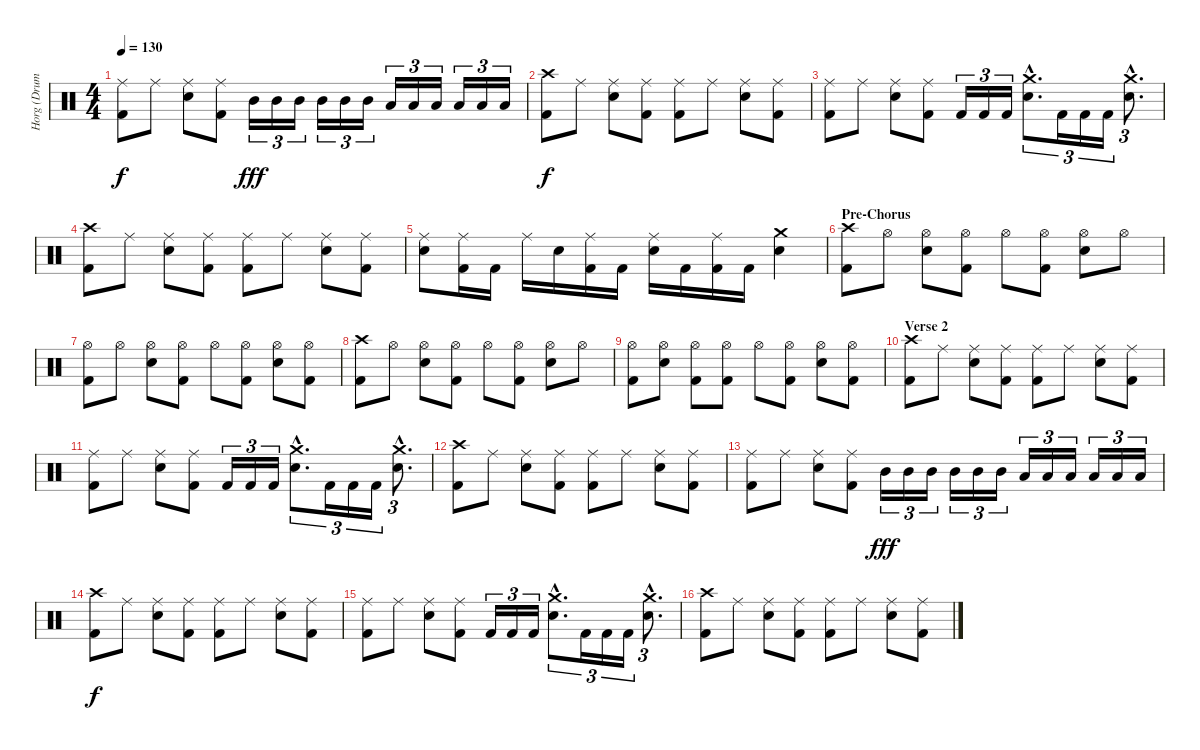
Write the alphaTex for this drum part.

\track ("Horg (Drums)" "Horg (Drum") {instrument percussion}
\staff {score}
\articulation defaults
\ts (4 4)
\tempo 130
\clef neutral
\ks c
("Ride (middle)" "Kick (hit) 2").8{dy f} "Ride (middle)".8 ("Ride (middle)" "Electric Snare (hit)").8 ("Ride (middle)" "Kick (hit) 2").8 "Mid Tom (hit)".16{tu (3 2) dy fff} "Mid Tom (hit)".16{tu (3 2)} "Mid Tom (hit)".16{tu (3 2)} "Mid Tom (hit)".16{tu (3 2)} "Mid Tom (hit)".16{tu (3 2)} "Mid Tom (hit)".16{tu (3 2)} "Low Tom (hit)".16{tu (3 2)} "Low Tom (hit)".16{tu (3 2)} "Low Tom (hit)".16{tu (3 2)} "Low Tom (hit)".16{tu (3 2)} "Low Tom (hit)".16{tu (3 2)} "Low Tom (hit)".16{tu (3 2)} |
("Crash high (hit)" "Kick (hit) 2").8{dy f} "Ride (middle)".8 ("Ride (middle)" "Electric Snare (hit)").8 ("Ride (middle)" "Kick (hit) 2").8 ("Ride (middle)" "Kick (hit) 2").8 "Ride (middle)".8 ("Ride (middle)" "Electric Snare (hit)").8 ("Ride (middle)" "Kick (hit) 2").8 |
("Ride (middle)" "Kick (hit) 2").8 "Ride (middle)".8 ("Ride (middle)" "Electric Snare (hit)").8 ("Ride (middle)" "Kick (hit) 2").8 "Kick (hit) 2".16{tu (3 2)} "Kick (hit) 2".16{tu (3 2)} "Kick (hit) 2".16{tu (3 2)} ("Crash medium (hit)"{hac} "Electric Snare (hit)"{hac}).8{d tu (3 2)} "Kick (hit) 2".16{tu (3 2)} "Kick (hit) 2".16{tu (3 2)} "Kick (hit) 2".16{tu (3 2)} ("Crash medium (hit)"{hac} "Electric Snare (hit)"{hac}).8{d tu (3 2)} |
("Crash high (hit)" "Kick (hit) 2").8 "Ride (middle)".8 ("Ride (middle)" "Electric Snare (hit)").8 ("Ride (middle)" "Kick (hit) 2").8 ("Ride (middle)" "Kick (hit) 2").8 "Ride (middle)".8 ("Ride (middle)" "Electric Snare (hit)").8 ("Ride (middle)" "Kick (hit) 2").8 |
("Ride (middle)" "Electric Snare (hit)").8 ("Ride (middle)" "Kick (hit) 2").16 "Kick (hit) 2".16 "Ride (middle)".16 "Electric Snare (hit)".16 ("Ride (middle)" "Kick (hit) 2").16 "Kick (hit) 2".16 ("Ride (middle)" "Electric Snare (hit)").16 "Kick (hit) 2".16 ("Ride (middle)" "Kick (hit) 2").16 "Kick (hit) 2".16 ("Crash medium (hit)" "Electric Snare (hit)").4 |
\section ("" "Pre-Chorus")
("Crash high (hit)" "Kick (hit) 2").8 "Hi-Hat (open)".8 ("Hi-Hat (open)" "Electric Snare (hit)").8 ("Hi-Hat (open)" "Kick (hit) 2").8 "Hi-Hat (open)".8 ("Hi-Hat (open)" "Kick (hit) 2").8 ("Hi-Hat (open)" "Electric Snare (hit)").8 "Hi-Hat (open)".8 |
("Hi-Hat (open)" "Kick (hit) 2").8 "Hi-Hat (open)".8 ("Hi-Hat (open)" "Electric Snare (hit)").8 ("Hi-Hat (open)" "Kick (hit) 2").8 "Hi-Hat (open)".8 ("Hi-Hat (open)" "Kick (hit) 2").8 ("Hi-Hat (open)" "Electric Snare (hit)").8 ("Hi-Hat (open)" "Kick (hit) 2").8 |
("Crash high (hit)" "Kick (hit) 2").8 "Hi-Hat (open)".8 ("Hi-Hat (open)" "Electric Snare (hit)").8 ("Hi-Hat (open)" "Kick (hit) 2").8 "Hi-Hat (open)".8 ("Hi-Hat (open)" "Kick (hit) 2").8 ("Hi-Hat (open)" "Electric Snare (hit)").8 "Hi-Hat (open)".8 |
("Hi-Hat (open)" "Kick (hit) 2").8 ("Hi-Hat (open)" "Electric Snare (hit)").8 ("Hi-Hat (open)" "Kick (hit) 2").8 ("Hi-Hat (open)" "Kick (hit) 2").8 "Hi-Hat (open)".8 ("Hi-Hat (open)" "Kick (hit) 2").8 ("Hi-Hat (open)" "Electric Snare (hit)").8 ("Hi-Hat (open)" "Kick (hit) 2").8 |
\section ("" "Verse 2")
("Crash high (hit)" "Kick (hit) 2").8 "Ride (middle)".8 ("Ride (middle)" "Electric Snare (hit)").8 ("Ride (middle)" "Kick (hit) 2").8 ("Ride (middle)" "Kick (hit) 2").8 "Ride (middle)".8 ("Ride (middle)" "Electric Snare (hit)").8 ("Ride (middle)" "Kick (hit) 2").8 |
("Ride (middle)" "Kick (hit) 2").8 "Ride (middle)".8 ("Ride (middle)" "Electric Snare (hit)").8 ("Ride (middle)" "Kick (hit) 2").8 "Kick (hit) 2".16{tu (3 2)} "Kick (hit) 2".16{tu (3 2)} "Kick (hit) 2".16{tu (3 2)} ("Crash medium (hit)"{hac} "Electric Snare (hit)"{hac}).8{d tu (3 2)} "Kick (hit) 2".16{tu (3 2)} "Kick (hit) 2".16{tu (3 2)} "Kick (hit) 2".16{tu (3 2)} ("Crash medium (hit)"{hac} "Electric Snare (hit)"{hac}).8{d tu (3 2)} |
("Crash high (hit)" "Kick (hit) 2").8 "Ride (middle)".8 ("Ride (middle)" "Electric Snare (hit)").8 ("Ride (middle)" "Kick (hit) 2").8 ("Ride (middle)" "Kick (hit) 2").8 "Ride (middle)".8 ("Ride (middle)" "Electric Snare (hit)").8 ("Ride (middle)" "Kick (hit) 2").8 |
("Ride (middle)" "Kick (hit) 2").8 "Ride (middle)".8 ("Ride (middle)" "Electric Snare (hit)").8 ("Ride (middle)" "Kick (hit) 2").8 "Mid Tom (hit)".16{tu (3 2) dy fff} "Mid Tom (hit)".16{tu (3 2)} "Mid Tom (hit)".16{tu (3 2)} "Mid Tom (hit)".16{tu (3 2)} "Mid Tom (hit)".16{tu (3 2)} "Mid Tom (hit)".16{tu (3 2)} "Low Tom (hit)".16{tu (3 2)} "Low Tom (hit)".16{tu (3 2)} "Low Tom (hit)".16{tu (3 2)} "Low Tom (hit)".16{tu (3 2)} "Low Tom (hit)".16{tu (3 2)} "Low Tom (hit)".16{tu (3 2)} |
("Crash high (hit)" "Kick (hit) 2").8{dy f} "Ride (middle)".8 ("Ride (middle)" "Electric Snare (hit)").8 ("Ride (middle)" "Kick (hit) 2").8 ("Ride (middle)" "Kick (hit) 2").8 "Ride (middle)".8 ("Ride (middle)" "Electric Snare (hit)").8 ("Ride (middle)" "Kick (hit) 2").8 |
("Ride (middle)" "Kick (hit) 2").8 "Ride (middle)".8 ("Ride (middle)" "Electric Snare (hit)").8 ("Ride (middle)" "Kick (hit) 2").8 "Kick (hit) 2".16{tu (3 2)} "Kick (hit) 2".16{tu (3 2)} "Kick (hit) 2".16{tu (3 2)} ("Crash medium (hit)"{hac} "Electric Snare (hit)"{hac}).8{d tu (3 2)} "Kick (hit) 2".16{tu (3 2)} "Kick (hit) 2".16{tu (3 2)} "Kick (hit) 2".16{tu (3 2)} ("Crash medium (hit)"{hac} "Electric Snare (hit)"{hac}).8{d tu (3 2)} |
("Crash high (hit)" "Kick (hit) 2").8 "Ride (middle)".8 ("Ride (middle)" "Electric Snare (hit)").8 ("Ride (middle)" "Kick (hit) 2").8 ("Ride (middle)" "Kick (hit) 2").8 "Ride (middle)".8 ("Ride (middle)" "Electric Snare (hit)").8 ("Ride (middle)" "Kick (hit) 2").8
